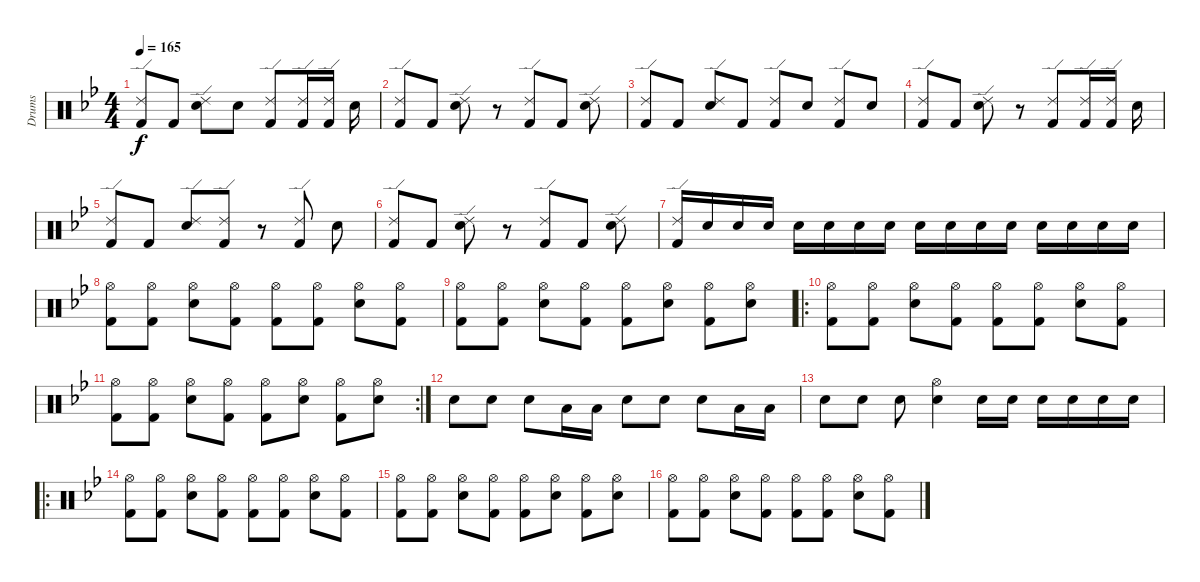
\track ("Drums" "Drums") {instrument percussion}
\staff {score}
\articulation defaults
\ts (4 4)
\tempo 165
\clef neutral
\ks bb
("Kick (hit) 2" "Ride (edge) 2").8{dy f} "Kick (hit) 2".8 ("Electric Snare (hit)" "Ride (edge) 2").8 "Electric Snare (hit)".8 ("Kick (hit) 2" "Ride (edge) 2").8 ("Kick (hit) 2" "Ride (edge) 2").16 ("Kick (hit) 2" "Ride (edge) 2").16 "Electric Snare (hit)".16 |
("Kick (hit) 2" "Ride (edge) 2").8 "Kick (hit) 2".8 ("Electric Snare (hit)" "Ride (edge) 2").8 r.8 ("Kick (hit) 2" "Ride (edge) 2").8 "Kick (hit) 2".8 ("Electric Snare (hit)" "Ride (edge) 2").8 |
("Kick (hit) 2" "Ride (edge) 2").8 "Kick (hit) 2".8 ("Electric Snare (hit)" "Ride (edge) 2").8 "Kick (hit) 2".8 ("Kick (hit) 2" "Ride (edge) 2").8 "Electric Snare (hit)".8 ("Kick (hit) 2" "Ride (edge) 2").8 "Electric Snare (hit)".8 |
("Kick (hit) 2" "Ride (edge) 2").8 "Kick (hit) 2".8 ("Electric Snare (hit)" "Ride (edge) 2").8 r.8 ("Kick (hit) 2" "Ride (edge) 2").8 ("Kick (hit) 2" "Ride (edge) 2").16 ("Kick (hit) 2" "Ride (edge) 2").16 "Electric Snare (hit)".16 |
("Kick (hit) 2" "Ride (edge) 2").8 "Kick (hit) 2".8 ("Electric Snare (hit)" "Ride (edge) 2").8 ("Kick (hit) 2" "Ride (edge) 2").8 r.8 ("Kick (hit) 2" "Ride (edge) 2").8 "Electric Snare (hit)".8 |
("Kick (hit) 2" "Ride (edge) 2").8 "Kick (hit) 2".8 ("Electric Snare (hit)" "Ride (edge) 2").8 r.8 ("Kick (hit) 2" "Ride (edge) 2").8 "Kick (hit) 2".8 ("Electric Snare (hit)" "Ride (edge) 2").8 |
("Kick (hit) 2" "Ride (edge) 2").16 "Electric Snare (hit)".16 "Electric Snare (hit)".16 "Electric Snare (hit)".16 "Electric Snare (hit)".16 "Electric Snare (hit)".16 "Electric Snare (hit)".16 "Electric Snare (hit)".16 "Electric Snare (hit)".16 "Electric Snare (hit)".16 "Electric Snare (hit)".16 "Electric Snare (hit)".16 "Electric Snare (hit)".16 "Electric Snare (hit)".16 "Electric Snare (hit)".16 "Electric Snare (hit)".16 |
("Kick (hit) 2" "Hi-Hat (open)").8 ("Kick (hit) 2" "Hi-Hat (open)").8 ("Electric Snare (hit)" "Hi-Hat (open)").8 ("Kick (hit) 2" "Hi-Hat (open)").8 ("Kick (hit) 2" "Hi-Hat (open)").8 ("Kick (hit) 2" "Hi-Hat (open)").8 ("Electric Snare (hit)" "Hi-Hat (open)").8 ("Kick (hit) 2" "Hi-Hat (open)").8 |
("Kick (hit) 2" "Hi-Hat (open)").8 ("Kick (hit) 2" "Hi-Hat (open)").8 ("Electric Snare (hit)" "Hi-Hat (open)").8 ("Kick (hit) 2" "Hi-Hat (open)").8 ("Kick (hit) 2" "Hi-Hat (open)").8 ("Electric Snare (hit)" "Hi-Hat (open)").8 ("Kick (hit) 2" "Hi-Hat (open)").8 ("Electric Snare (hit)" "Hi-Hat (open)").8 |
\ro
("Kick (hit) 2" "Hi-Hat (open)").8 ("Kick (hit) 2" "Hi-Hat (open)").8 ("Electric Snare (hit)" "Hi-Hat (open)").8 ("Kick (hit) 2" "Hi-Hat (open)").8 ("Kick (hit) 2" "Hi-Hat (open)").8 ("Kick (hit) 2" "Hi-Hat (open)").8 ("Electric Snare (hit)" "Hi-Hat (open)").8 ("Kick (hit) 2" "Hi-Hat (open)").8 |
\rc 2
("Kick (hit) 2" "Hi-Hat (open)").8 ("Kick (hit) 2" "Hi-Hat (open)").8 ("Electric Snare (hit)" "Hi-Hat (open)").8 ("Kick (hit) 2" "Hi-Hat (open)").8 ("Kick (hit) 2" "Hi-Hat (open)").8 ("Electric Snare (hit)" "Hi-Hat (open)").8 ("Kick (hit) 2" "Hi-Hat (open)").8 ("Electric Snare (hit)" "Hi-Hat (open)").8 |
"Electric Snare (hit)".8 "Electric Snare (hit)".8 "Electric Snare (hit)".8 "Low Floor Tom (hit)".16 "Low Floor Tom (hit)".16 "Electric Snare (hit)".8 "Electric Snare (hit)".8 "Electric Snare (hit)".8 "Low Floor Tom (hit)".16 "Low Floor Tom (hit)".16 |
"Electric Snare (hit)".8 "Electric Snare (hit)".8 "Electric Snare (hit)".8 ("Electric Snare (hit)" "Hi-Hat (open)").4 "Electric Snare (hit)".16 "Electric Snare (hit)".16 "Electric Snare (hit)".16 "Electric Snare (hit)".16 "Electric Snare (hit)".16 "Electric Snare (hit)".16 |
\ro
("Kick (hit) 2" "Hi-Hat (open)").8 ("Kick (hit) 2" "Hi-Hat (open)").8 ("Electric Snare (hit)" "Hi-Hat (open)").8 ("Kick (hit) 2" "Hi-Hat (open)").8 ("Kick (hit) 2" "Hi-Hat (open)").8 ("Kick (hit) 2" "Hi-Hat (open)").8 ("Electric Snare (hit)" "Hi-Hat (open)").8 ("Kick (hit) 2" "Hi-Hat (open)").8 |
("Kick (hit) 2" "Hi-Hat (open)").8 ("Kick (hit) 2" "Hi-Hat (open)").8 ("Electric Snare (hit)" "Hi-Hat (open)").8 ("Kick (hit) 2" "Hi-Hat (open)").8 ("Kick (hit) 2" "Hi-Hat (open)").8 ("Electric Snare (hit)" "Hi-Hat (open)").8 ("Kick (hit) 2" "Hi-Hat (open)").8 ("Electric Snare (hit)" "Hi-Hat (open)").8 |
("Kick (hit) 2" "Hi-Hat (open)").8 ("Kick (hit) 2" "Hi-Hat (open)").8 ("Electric Snare (hit)" "Hi-Hat (open)").8 ("Kick (hit) 2" "Hi-Hat (open)").8 ("Kick (hit) 2" "Hi-Hat (open)").8 ("Kick (hit) 2" "Hi-Hat (open)").8 ("Electric Snare (hit)" "Hi-Hat (open)").8 ("Kick (hit) 2" "Hi-Hat (open)").8
